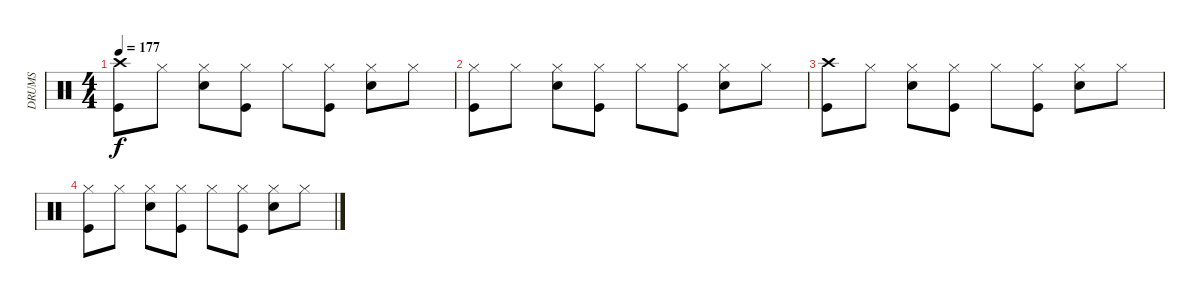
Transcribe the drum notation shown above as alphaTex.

\track ("DRUMS" "DRUMS") {instrument percussion}
\staff {score}
\articulation defaults
\ts (4 4)
\tempo 177
\clef neutral
\ks c
("Crash high (hit)" "Kick (hit)").8{dy f} "Hi-Hat (closed)".8 ("Hi-Hat (closed)" "Snare (hit) 2").8 ("Hi-Hat (closed)" "Kick (hit)").8 "Hi-Hat (closed)".8 ("Hi-Hat (closed)" "Kick (hit)").8 ("Hi-Hat (closed)" "Snare (hit) 2").8 "Hi-Hat (closed)".8 |
("Hi-Hat (closed)" "Kick (hit)").8 "Hi-Hat (closed)".8 ("Hi-Hat (closed)" "Snare (hit) 2").8 ("Hi-Hat (closed)" "Kick (hit)").8 "Hi-Hat (closed)".8 ("Hi-Hat (closed)" "Kick (hit)").8 ("Hi-Hat (closed)" "Snare (hit) 2").8 "Hi-Hat (closed)".8 |
("Crash high (hit)" "Kick (hit)").8 "Hi-Hat (closed)".8 ("Hi-Hat (closed)" "Snare (hit) 2").8 ("Hi-Hat (closed)" "Kick (hit)").8 "Hi-Hat (closed)".8 ("Hi-Hat (closed)" "Kick (hit)").8 ("Hi-Hat (closed)" "Snare (hit) 2").8 "Hi-Hat (closed)".8 |
("Hi-Hat (closed)" "Kick (hit)").8 "Hi-Hat (closed)".8 ("Hi-Hat (closed)" "Snare (hit) 2").8 ("Hi-Hat (closed)" "Kick (hit)").8 "Hi-Hat (closed)".8 ("Hi-Hat (closed)" "Kick (hit)").8 ("Hi-Hat (closed)" "Snare (hit) 2").8 "Hi-Hat (closed)".8
